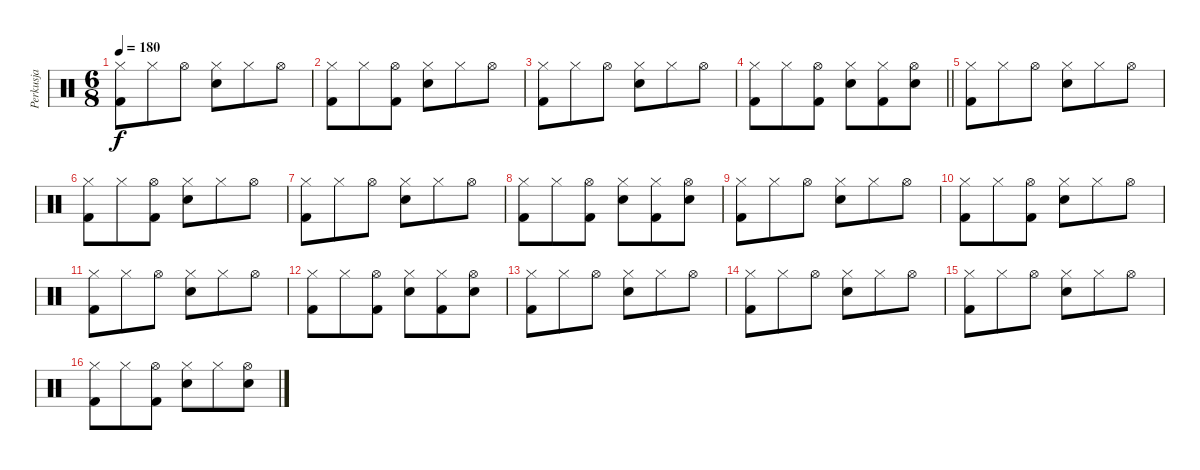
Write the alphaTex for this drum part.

\track ("Perkusja" "Perkusja") {instrument percussion}
\staff {score}
\articulation defaults
\ts (6 8)
\tempo 180
\clef neutral
\ks c
("Hi-Hat (closed)" "Kick (hit) 2").8{dy f} "Hi-Hat (closed)".8 "Hi-Hat (open)".8 ("Hi-Hat (closed)" "Snare (hit) 2").8 "Hi-Hat (closed)".8 "Hi-Hat (open)".8 |
("Hi-Hat (closed)" "Kick (hit) 2").8 "Hi-Hat (closed)".8 ("Hi-Hat (open)" "Kick (hit) 2").8 ("Hi-Hat (closed)" "Snare (hit) 2").8 "Hi-Hat (closed)".8 "Hi-Hat (open)".8 |
("Hi-Hat (closed)" "Kick (hit) 2").8 "Hi-Hat (closed)".8 "Hi-Hat (open)".8 ("Hi-Hat (closed)" "Snare (hit) 2").8 "Hi-Hat (closed)".8 "Hi-Hat (open)".8 |
\barLineRight lightlight
("Hi-Hat (closed)" "Kick (hit) 2").8 "Hi-Hat (closed)".8 ("Hi-Hat (open)" "Kick (hit) 2").8 ("Hi-Hat (closed)" "Snare (hit) 2").8 ("Hi-Hat (closed)" "Kick (hit) 2").8 ("Hi-Hat (open)" "Snare (hit) 2").8 |
("Hi-Hat (closed)" "Kick (hit) 2").8 "Hi-Hat (closed)".8 "Hi-Hat (open)".8 ("Hi-Hat (closed)" "Snare (hit) 2").8 "Hi-Hat (closed)".8 "Hi-Hat (open)".8 |
("Hi-Hat (closed)" "Kick (hit) 2").8 "Hi-Hat (closed)".8 ("Hi-Hat (open)" "Kick (hit) 2").8 ("Hi-Hat (closed)" "Snare (hit) 2").8 "Hi-Hat (closed)".8 "Hi-Hat (open)".8 |
("Hi-Hat (closed)" "Kick (hit) 2").8 "Hi-Hat (closed)".8 "Hi-Hat (open)".8 ("Hi-Hat (closed)" "Snare (hit) 2").8 "Hi-Hat (closed)".8 "Hi-Hat (open)".8 |
("Hi-Hat (closed)" "Kick (hit) 2").8 "Hi-Hat (closed)".8 ("Hi-Hat (open)" "Kick (hit) 2").8 ("Hi-Hat (closed)" "Snare (hit) 2").8 ("Hi-Hat (closed)" "Kick (hit) 2").8 ("Hi-Hat (open)" "Snare (hit) 2").8 |
("Hi-Hat (closed)" "Kick (hit) 2").8 "Hi-Hat (closed)".8 "Hi-Hat (open)".8 ("Hi-Hat (closed)" "Snare (hit) 2").8 "Hi-Hat (closed)".8 "Hi-Hat (open)".8 |
("Hi-Hat (closed)" "Kick (hit) 2").8 "Hi-Hat (closed)".8 ("Hi-Hat (open)" "Kick (hit) 2").8 ("Hi-Hat (closed)" "Snare (hit) 2").8 "Hi-Hat (closed)".8 "Hi-Hat (open)".8 |
("Hi-Hat (closed)" "Kick (hit) 2").8 "Hi-Hat (closed)".8 "Hi-Hat (open)".8 ("Hi-Hat (closed)" "Snare (hit) 2").8 "Hi-Hat (closed)".8 "Hi-Hat (open)".8 |
("Hi-Hat (closed)" "Kick (hit) 2").8 "Hi-Hat (closed)".8 ("Hi-Hat (open)" "Kick (hit) 2").8 ("Hi-Hat (closed)" "Snare (hit) 2").8 ("Hi-Hat (closed)" "Kick (hit) 2").8 ("Hi-Hat (open)" "Snare (hit) 2").8 |
("Hi-Hat (closed)" "Kick (hit) 2").8 "Hi-Hat (closed)".8 "Hi-Hat (open)".8 ("Hi-Hat (closed)" "Snare (hit) 2").8 "Hi-Hat (closed)".8 "Hi-Hat (open)".8 |
("Hi-Hat (closed)" "Kick (hit) 2").8 "Hi-Hat (closed)".8 "Hi-Hat (open)".8 ("Hi-Hat (closed)" "Snare (hit) 2").8 "Hi-Hat (closed)".8 "Hi-Hat (open)".8 |
("Hi-Hat (closed)" "Kick (hit) 2").8 "Hi-Hat (closed)".8 "Hi-Hat (open)".8 ("Hi-Hat (closed)" "Snare (hit) 2").8 "Hi-Hat (closed)".8 "Hi-Hat (open)".8 |
("Hi-Hat (closed)" "Kick (hit) 2").8 "Hi-Hat (closed)".8 ("Hi-Hat (open)" "Kick (hit) 2").8 ("Hi-Hat (closed)" "Snare (hit) 2").8 "Hi-Hat (closed)".8 ("Hi-Hat (open)" "Snare (hit) 2").8
